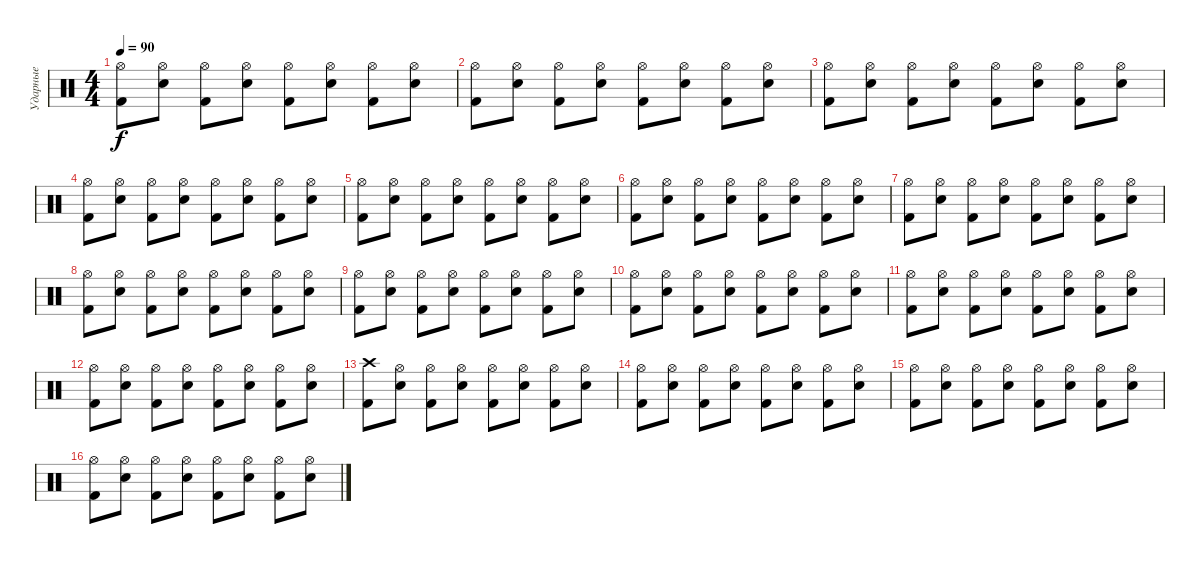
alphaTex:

\track ("Ударные" "Ударные") {instrument percussion}
\staff {score}
\articulation defaults
\ts (4 4)
\tempo 90
\clef neutral
\ks c
("Kick (hit) 2" "Hi-Hat (open)").8{dy f} ("Electric Snare (hit)" "Hi-Hat (open)").8 ("Kick (hit) 2" "Hi-Hat (open)").8 ("Electric Snare (hit)" "Hi-Hat (open)").8 ("Kick (hit) 2" "Hi-Hat (open)").8 ("Electric Snare (hit)" "Hi-Hat (open)").8 ("Kick (hit) 2" "Hi-Hat (open)").8 ("Electric Snare (hit)" "Hi-Hat (open)").8 |
("Kick (hit) 2" "Hi-Hat (open)").8 ("Electric Snare (hit)" "Hi-Hat (open)").8 ("Kick (hit) 2" "Hi-Hat (open)").8 ("Electric Snare (hit)" "Hi-Hat (open)").8 ("Kick (hit) 2" "Hi-Hat (open)").8 ("Electric Snare (hit)" "Hi-Hat (open)").8 ("Kick (hit) 2" "Hi-Hat (open)").8 ("Electric Snare (hit)" "Hi-Hat (open)").8 |
("Kick (hit) 2" "Hi-Hat (open)").8 ("Electric Snare (hit)" "Hi-Hat (open)").8 ("Kick (hit) 2" "Hi-Hat (open)").8 ("Electric Snare (hit)" "Hi-Hat (open)").8 ("Kick (hit) 2" "Hi-Hat (open)").8 ("Electric Snare (hit)" "Hi-Hat (open)").8 ("Kick (hit) 2" "Hi-Hat (open)").8 ("Electric Snare (hit)" "Hi-Hat (open)").8 |
("Kick (hit) 2" "Hi-Hat (open)").8 ("Electric Snare (hit)" "Hi-Hat (open)").8 ("Kick (hit) 2" "Hi-Hat (open)").8 ("Electric Snare (hit)" "Hi-Hat (open)").8 ("Kick (hit) 2" "Hi-Hat (open)").8 ("Electric Snare (hit)" "Hi-Hat (open)").8 ("Kick (hit) 2" "Hi-Hat (open)").8 ("Electric Snare (hit)" "Hi-Hat (open)").8 |
("Kick (hit) 2" "Hi-Hat (open)").8 ("Electric Snare (hit)" "Hi-Hat (open)").8 ("Kick (hit) 2" "Hi-Hat (open)").8 ("Electric Snare (hit)" "Hi-Hat (open)").8 ("Kick (hit) 2" "Hi-Hat (open)").8 ("Electric Snare (hit)" "Hi-Hat (open)").8 ("Kick (hit) 2" "Hi-Hat (open)").8 ("Electric Snare (hit)" "Hi-Hat (open)").8 |
("Kick (hit) 2" "Hi-Hat (open)").8 ("Electric Snare (hit)" "Hi-Hat (open)").8 ("Kick (hit) 2" "Hi-Hat (open)").8 ("Electric Snare (hit)" "Hi-Hat (open)").8 ("Kick (hit) 2" "Hi-Hat (open)").8 ("Electric Snare (hit)" "Hi-Hat (open)").8 ("Kick (hit) 2" "Hi-Hat (open)").8 ("Electric Snare (hit)" "Hi-Hat (open)").8 |
("Kick (hit) 2" "Hi-Hat (open)").8 ("Electric Snare (hit)" "Hi-Hat (open)").8 ("Kick (hit) 2" "Hi-Hat (open)").8 ("Electric Snare (hit)" "Hi-Hat (open)").8 ("Kick (hit) 2" "Hi-Hat (open)").8 ("Electric Snare (hit)" "Hi-Hat (open)").8 ("Kick (hit) 2" "Hi-Hat (open)").8 ("Electric Snare (hit)" "Hi-Hat (open)").8 |
("Kick (hit) 2" "Hi-Hat (open)").8 ("Electric Snare (hit)" "Hi-Hat (open)").8 ("Kick (hit) 2" "Hi-Hat (open)").8 ("Electric Snare (hit)" "Hi-Hat (open)").8 ("Kick (hit) 2" "Hi-Hat (open)").8 ("Electric Snare (hit)" "Hi-Hat (open)").8 ("Kick (hit) 2" "Hi-Hat (open)").8 ("Electric Snare (hit)" "Hi-Hat (open)").8 |
("Kick (hit) 2" "Hi-Hat (open)").8 ("Electric Snare (hit)" "Hi-Hat (open)").8 ("Kick (hit) 2" "Hi-Hat (open)").8 ("Electric Snare (hit)" "Hi-Hat (open)").8 ("Kick (hit) 2" "Hi-Hat (open)").8 ("Electric Snare (hit)" "Hi-Hat (open)").8 ("Kick (hit) 2" "Hi-Hat (open)").8 ("Electric Snare (hit)" "Hi-Hat (open)").8 |
("Kick (hit) 2" "Hi-Hat (open)").8 ("Electric Snare (hit)" "Hi-Hat (open)").8 ("Kick (hit) 2" "Hi-Hat (open)").8 ("Electric Snare (hit)" "Hi-Hat (open)").8 ("Kick (hit) 2" "Hi-Hat (open)").8 ("Electric Snare (hit)" "Hi-Hat (open)").8 ("Kick (hit) 2" "Hi-Hat (open)").8 ("Electric Snare (hit)" "Hi-Hat (open)").8 |
("Kick (hit) 2" "Hi-Hat (open)").8 ("Electric Snare (hit)" "Hi-Hat (open)").8 ("Kick (hit) 2" "Hi-Hat (open)").8 ("Electric Snare (hit)" "Hi-Hat (open)").8 ("Kick (hit) 2" "Hi-Hat (open)").8 ("Electric Snare (hit)" "Hi-Hat (open)").8 ("Kick (hit) 2" "Hi-Hat (open)").8 ("Electric Snare (hit)" "Hi-Hat (open)").8 |
("Kick (hit) 2" "Hi-Hat (open)").8 ("Electric Snare (hit)" "Hi-Hat (open)").8 ("Kick (hit) 2" "Hi-Hat (open)").8 ("Electric Snare (hit)" "Hi-Hat (open)").8 ("Kick (hit) 2" "Hi-Hat (open)").8 ("Electric Snare (hit)" "Hi-Hat (open)").8 ("Kick (hit) 2" "Hi-Hat (open)").8 ("Electric Snare (hit)" "Hi-Hat (open)").8 |
("Crash high (hit)" "Kick (hit) 2").8 ("Electric Snare (hit)" "Hi-Hat (open)").8 ("Kick (hit) 2" "Hi-Hat (open)").8 ("Electric Snare (hit)" "Hi-Hat (open)").8 ("Kick (hit) 2" "Hi-Hat (open)").8 ("Electric Snare (hit)" "Hi-Hat (open)").8 ("Kick (hit) 2" "Hi-Hat (open)").8 ("Electric Snare (hit)" "Hi-Hat (open)").8 |
("Kick (hit) 2" "Hi-Hat (open)").8 ("Electric Snare (hit)" "Hi-Hat (open)").8 ("Kick (hit) 2" "Hi-Hat (open)").8 ("Electric Snare (hit)" "Hi-Hat (open)").8 ("Kick (hit) 2" "Hi-Hat (open)").8 ("Electric Snare (hit)" "Hi-Hat (open)").8 ("Kick (hit) 2" "Hi-Hat (open)").8 ("Electric Snare (hit)" "Hi-Hat (open)").8 |
("Kick (hit) 2" "Hi-Hat (open)").8 ("Electric Snare (hit)" "Hi-Hat (open)").8 ("Kick (hit) 2" "Hi-Hat (open)").8 ("Electric Snare (hit)" "Hi-Hat (open)").8 ("Kick (hit) 2" "Hi-Hat (open)").8 ("Electric Snare (hit)" "Hi-Hat (open)").8 ("Kick (hit) 2" "Hi-Hat (open)").8 ("Electric Snare (hit)" "Hi-Hat (open)").8 |
("Kick (hit) 2" "Hi-Hat (open)").8 ("Electric Snare (hit)" "Hi-Hat (open)").8 ("Kick (hit) 2" "Hi-Hat (open)").8 ("Electric Snare (hit)" "Hi-Hat (open)").8 ("Kick (hit) 2" "Hi-Hat (open)").8 ("Electric Snare (hit)" "Hi-Hat (open)").8 ("Kick (hit) 2" "Hi-Hat (open)").8 ("Electric Snare (hit)" "Hi-Hat (open)").8
